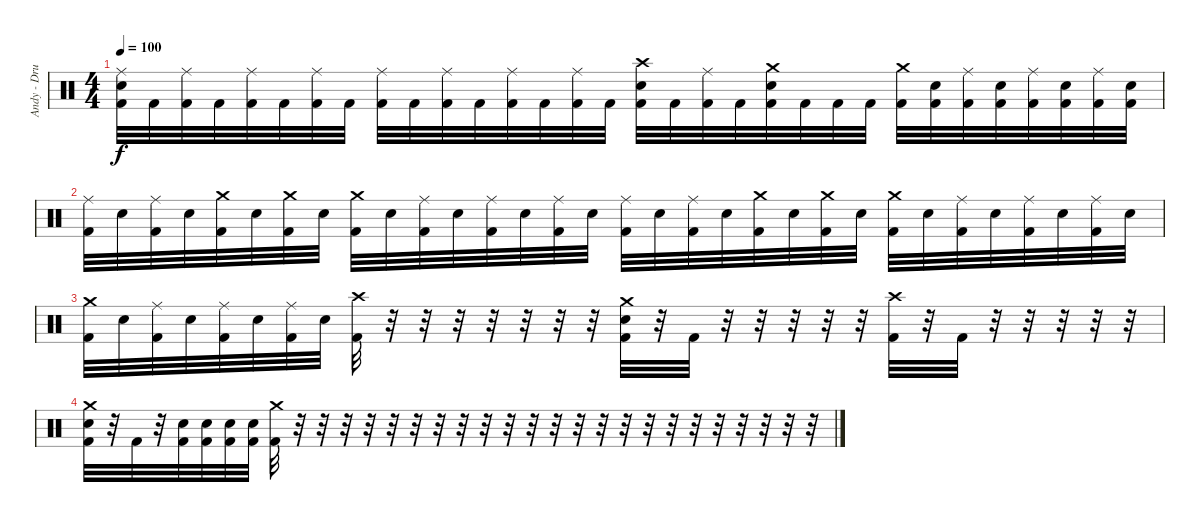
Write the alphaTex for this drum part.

\track ("Andy - Drums" "Andy - Dru") {instrument percussion}
\staff {score}
\articulation defaults
\ts (4 4)
\tempo 100
\clef neutral
\ks c
("Ride (middle)" "Electric Snare (hit)" "Kick (hit) 2").32{dy f} "Kick (hit) 2".32 ("Ride (middle)" "Kick (hit) 2").32 "Kick (hit) 2".32 ("Ride (middle)" "Kick (hit) 2").32 "Kick (hit) 2".32 ("Ride (middle)" "Kick (hit) 2").32 "Kick (hit) 2".32 ("Ride (middle)" "Kick (hit) 2").32 "Kick (hit) 2".32 ("Ride (middle)" "Kick (hit) 2").32 "Kick (hit) 2".32 ("Ride (middle)" "Kick (hit) 2").32 "Kick (hit) 2".32 ("Ride (middle)" "Kick (hit) 2").32 "Kick (hit) 2".32 ("Crash high (hit)" "Electric Snare (hit)" "Kick (hit) 2").32 "Kick (hit) 2".32 ("Ride (middle)" "Kick (hit) 2").32 "Kick (hit) 2".32 ("Crash medium (hit)" "Electric Snare (hit)" "Kick (hit) 2").32 "Kick (hit) 2".32 "Kick (hit) 2".32 "Kick (hit) 2".32 ("Crash medium (hit)" "Kick (hit) 2").32 ("Electric Snare (hit)" "Kick (hit) 2").32 ("Ride (middle)" "Kick (hit) 2").32 ("Electric Snare (hit)" "Kick (hit) 2").32 ("Ride (middle)" "Kick (hit) 2").32 ("Electric Snare (hit)" "Kick (hit) 2").32 ("Ride (middle)" "Kick (hit) 2").32 ("Electric Snare (hit)" "Kick (hit) 2").32 |
("Ride (middle)" "Kick (hit) 2").32 "Electric Snare (hit)".32 ("Ride (middle)" "Kick (hit) 2").32 "Electric Snare (hit)".32 ("Crash medium (hit)" "Kick (hit) 2").32 "Electric Snare (hit)".32 ("Crash medium (hit)" "Kick (hit) 2").32 "Electric Snare (hit)".32 ("Crash medium (hit)" "Kick (hit) 2").32 "Electric Snare (hit)".32 ("Ride (middle)" "Kick (hit) 2").32 "Electric Snare (hit)".32 ("Ride (middle)" "Kick (hit) 2").32 "Electric Snare (hit)".32 ("Ride (middle)" "Kick (hit) 2").32 "Electric Snare (hit)".32 ("Ride (middle)" "Kick (hit) 2").32 "Electric Snare (hit)".32 ("Ride (middle)" "Kick (hit) 2").32 "Electric Snare (hit)".32 ("Crash medium (hit)" "Kick (hit) 2").32 "Electric Snare (hit)".32 ("Crash medium (hit)" "Kick (hit) 2").32 "Electric Snare (hit)".32 ("Crash medium (hit)" "Kick (hit) 2").32 "Electric Snare (hit)".32 ("Ride (middle)" "Kick (hit) 2").32 "Electric Snare (hit)".32 ("Ride (middle)" "Kick (hit) 2").32 "Electric Snare (hit)".32 ("Ride (middle)" "Kick (hit) 2").32 "Electric Snare (hit)".32 |
("Crash medium (hit)" "Kick (hit) 2").32 "Electric Snare (hit)".32 ("Ride (middle)" "Kick (hit) 2").32 "Electric Snare (hit)".32 ("Ride (middle)" "Kick (hit) 2").32 "Electric Snare (hit)".32 ("Ride (middle)" "Kick (hit) 2").32 "Electric Snare (hit)".32 ("Crash high (hit)" "Kick (hit) 2").32 r.32 r.32 r.32 r.32 r.32 r.32 r.32 ("Crash medium (hit)" "Electric Snare (hit)" "Kick (hit) 2").32 r.32 "Kick (hit) 2".32 r.32 r.32 r.32 r.32 r.32 ("Crash high (hit)" "Kick (hit) 2").32 r.32 "Kick (hit) 2".32 r.32 r.32 r.32 r.32 r.32 |
("Crash medium (hit)" "Electric Snare (hit)" "Kick (hit) 2").32 r.32 "Kick (hit) 2".32 r.32 ("Electric Snare (hit)" "Kick (hit) 2").32 ("Electric Snare (hit)" "Kick (hit) 2").32 ("Electric Snare (hit)" "Kick (hit) 2").32 ("Electric Snare (hit)" "Kick (hit) 2").32 ("Crash medium (hit)" "Kick (hit) 2").32 r.32 r.32 r.32 r.32 r.32 r.32 r.32 r.32 r.32 r.32 r.32 r.32 r.32 r.32 r.32 r.32 r.32 r.32 r.32 r.32 r.32 r.32 r.32
